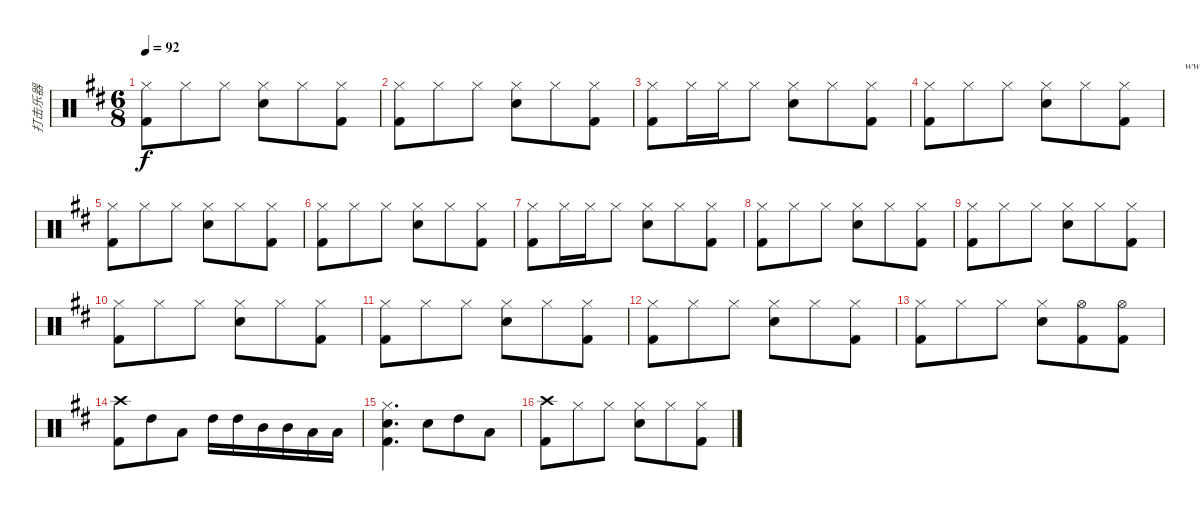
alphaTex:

\track ("打击乐器" "打击乐器") {instrument percussion}
\staff {score}
\articulation defaults
\ts (6 8)
\tempo 92
\clef neutral
\ks d
("Hi-Hat (closed)" "Kick (hit) 2").8{dy f} "Hi-Hat (closed)".8 "Hi-Hat (closed)".8 ("Hi-Hat (closed)" "Snare (hit) 2").8 "Hi-Hat (closed)".8 ("Hi-Hat (closed)" "Kick (hit) 2").8 |
("Hi-Hat (closed)" "Kick (hit) 2").8 "Hi-Hat (closed)".8 "Hi-Hat (closed)".8 ("Hi-Hat (closed)" "Snare (hit) 2").8 "Hi-Hat (closed)".8 ("Hi-Hat (closed)" "Kick (hit) 2").8 |
("Hi-Hat (closed)" "Kick (hit) 2").8 "Hi-Hat (closed)".16 "Hi-Hat (closed)".16 "Hi-Hat (closed)".8 ("Hi-Hat (closed)" "Snare (hit) 2").8 "Hi-Hat (closed)".8 ("Hi-Hat (closed)" "Kick (hit) 2").8 |
("Hi-Hat (closed)" "Kick (hit) 2").8 "Hi-Hat (closed)".8 "Hi-Hat (closed)".8 ("Hi-Hat (closed)" "Snare (hit) 2").8 "Hi-Hat (closed)".8 ("Hi-Hat (closed)" "Kick (hit) 2").8{txt "                    www.gtp.cn GTP中文网为您提供"} |
("Hi-Hat (closed)" "Kick (hit) 2").8 "Hi-Hat (closed)".8 "Hi-Hat (closed)".8 ("Hi-Hat (closed)" "Snare (hit) 2").8 "Hi-Hat (closed)".8 ("Hi-Hat (closed)" "Kick (hit) 2").8 |
("Hi-Hat (closed)" "Kick (hit) 2").8 "Hi-Hat (closed)".8 "Hi-Hat (closed)".8 ("Hi-Hat (closed)" "Snare (hit) 2").8 "Hi-Hat (closed)".8 ("Hi-Hat (closed)" "Kick (hit) 2").8 |
("Hi-Hat (closed)" "Kick (hit) 2").8 "Hi-Hat (closed)".16 "Hi-Hat (closed)".16 "Hi-Hat (closed)".8 ("Hi-Hat (closed)" "Snare (hit) 2").8 "Hi-Hat (closed)".8 ("Hi-Hat (closed)" "Kick (hit) 2").8 |
("Hi-Hat (closed)" "Kick (hit) 2").8 "Hi-Hat (closed)".8 "Hi-Hat (closed)".8 ("Hi-Hat (closed)" "Snare (hit) 2").8 "Hi-Hat (closed)".8 ("Hi-Hat (closed)" "Kick (hit) 2").8 |
("Hi-Hat (closed)" "Kick (hit) 2").8 "Hi-Hat (closed)".8 "Hi-Hat (closed)".8 ("Hi-Hat (closed)" "Snare (hit) 2").8 "Hi-Hat (closed)".8 ("Hi-Hat (closed)" "Kick (hit) 2").8 |
("Hi-Hat (closed)" "Kick (hit) 2").8 "Hi-Hat (closed)".8 "Hi-Hat (closed)".8 ("Hi-Hat (closed)" "Snare (hit) 2").8 "Hi-Hat (closed)".8 ("Hi-Hat (closed)" "Kick (hit) 2").8 |
("Hi-Hat (closed)" "Kick (hit) 2").8 "Hi-Hat (closed)".8 "Hi-Hat (closed)".8 ("Hi-Hat (closed)" "Snare (hit) 2").8 "Hi-Hat (closed)".8 ("Hi-Hat (closed)" "Kick (hit) 2").8 |
("Hi-Hat (closed)" "Kick (hit) 2").8 "Hi-Hat (closed)".8 "Hi-Hat (closed)".8 ("Hi-Hat (closed)" "Snare (hit) 2").8 "Hi-Hat (closed)".8 ("Hi-Hat (closed)" "Kick (hit) 2").8 |
("Hi-Hat (closed)" "Kick (hit) 2").8 "Hi-Hat (closed)".8 "Hi-Hat (closed)".8 ("Hi-Hat (closed)" "Snare (hit) 2").8 ("Hi-Hat (open)" "Kick (hit) 2").8 ("Hi-Hat (open)" "Kick (hit) 2").8 |
("Crash high (hit)" "Kick (hit) 2").8 "High Tom (hit)".8 "Low Tom (hit)".8 "High Tom (hit)".16 "High Tom (hit)".16 "Mid Tom (hit)".16 "Mid Tom (hit)".16 "Low Tom (hit)".16 "Low Tom (hit)".16 |
("Hi-Hat (closed)" "Snare (hit) 2" "Kick (hit) 2").4{d} "Snare (hit) 2".8 "High Tom (hit)".8 "Low Tom (hit)".8 |
("Crash high (hit)" "Kick (hit) 2").8 "Hi-Hat (closed)".8 "Hi-Hat (closed)".8 ("Hi-Hat (closed)" "Snare (hit) 2").8 "Hi-Hat (closed)".8 ("Hi-Hat (closed)" "Kick (hit) 2").8
